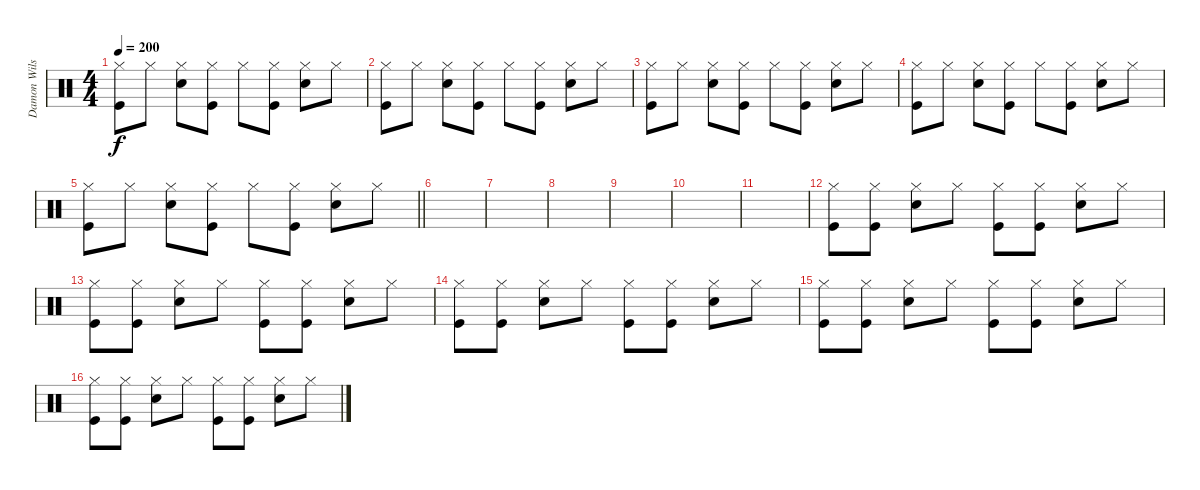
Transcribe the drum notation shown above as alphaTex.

\track ("Damon Wilson" "Damon Wils") {instrument percussion}
\staff {score}
\articulation defaults
\ts (4 4)
\tempo 200
\clef neutral
\ks c
("Hi-Hat (closed)" "Kick (hit)").8{dy f} "Hi-Hat (closed)".8 ("Hi-Hat (closed)" "Snare (hit) 2").8 ("Hi-Hat (closed)" "Kick (hit)").8 "Hi-Hat (closed)".8 ("Hi-Hat (closed)" "Kick (hit)").8 ("Hi-Hat (closed)" "Snare (hit) 2").8 "Hi-Hat (closed)".8 |
("Hi-Hat (closed)" "Kick (hit)").8 "Hi-Hat (closed)".8 ("Hi-Hat (closed)" "Snare (hit) 2").8 ("Hi-Hat (closed)" "Kick (hit)").8 "Hi-Hat (closed)".8 ("Hi-Hat (closed)" "Kick (hit)").8 ("Hi-Hat (closed)" "Snare (hit) 2").8 "Hi-Hat (closed)".8 |
("Hi-Hat (closed)" "Kick (hit)").8 "Hi-Hat (closed)".8 ("Hi-Hat (closed)" "Snare (hit) 2").8 ("Hi-Hat (closed)" "Kick (hit)").8 "Hi-Hat (closed)".8 ("Hi-Hat (closed)" "Kick (hit)").8 ("Hi-Hat (closed)" "Snare (hit) 2").8 "Hi-Hat (closed)".8 |
("Hi-Hat (closed)" "Kick (hit)").8 "Hi-Hat (closed)".8 ("Hi-Hat (closed)" "Snare (hit) 2").8 ("Hi-Hat (closed)" "Kick (hit)").8 "Hi-Hat (closed)".8 ("Hi-Hat (closed)" "Kick (hit)").8 ("Hi-Hat (closed)" "Snare (hit) 2").8 "Hi-Hat (closed)".8 |
\barLineRight lightlight
("Hi-Hat (closed)" "Kick (hit)").8 "Hi-Hat (closed)".8 ("Hi-Hat (closed)" "Snare (hit) 2").8 ("Hi-Hat (closed)" "Kick (hit)").8 "Hi-Hat (closed)".8 ("Hi-Hat (closed)" "Kick (hit)").8 ("Hi-Hat (closed)" "Snare (hit) 2").8 "Hi-Hat (closed)".8 |
|
|
|
|
|
|
("Hi-Hat (closed)" "Kick (hit)").8 ("Hi-Hat (closed)" "Kick (hit)").8 ("Hi-Hat (closed)" "Snare (hit) 2").8 "Hi-Hat (closed)".8 ("Hi-Hat (closed)" "Kick (hit)").8 ("Hi-Hat (closed)" "Kick (hit)").8 ("Hi-Hat (closed)" "Snare (hit) 2").8 "Hi-Hat (closed)".8 |
("Hi-Hat (closed)" "Kick (hit)").8 ("Hi-Hat (closed)" "Kick (hit)").8 ("Hi-Hat (closed)" "Snare (hit) 2").8 "Hi-Hat (closed)".8 ("Hi-Hat (closed)" "Kick (hit)").8 ("Hi-Hat (closed)" "Kick (hit)").8 ("Hi-Hat (closed)" "Snare (hit) 2").8 "Hi-Hat (closed)".8 |
("Hi-Hat (closed)" "Kick (hit)").8 ("Hi-Hat (closed)" "Kick (hit)").8 ("Hi-Hat (closed)" "Snare (hit) 2").8 "Hi-Hat (closed)".8 ("Hi-Hat (closed)" "Kick (hit)").8 ("Hi-Hat (closed)" "Kick (hit)").8 ("Hi-Hat (closed)" "Snare (hit) 2").8 "Hi-Hat (closed)".8 |
("Hi-Hat (closed)" "Kick (hit)").8 ("Hi-Hat (closed)" "Kick (hit)").8 ("Hi-Hat (closed)" "Snare (hit) 2").8 "Hi-Hat (closed)".8 ("Hi-Hat (closed)" "Kick (hit)").8 ("Hi-Hat (closed)" "Kick (hit)").8 ("Hi-Hat (closed)" "Snare (hit) 2").8 "Hi-Hat (closed)".8 |
("Hi-Hat (closed)" "Kick (hit)").8 ("Hi-Hat (closed)" "Kick (hit)").8 ("Hi-Hat (closed)" "Snare (hit) 2").8 "Hi-Hat (closed)".8 ("Hi-Hat (closed)" "Kick (hit)").8 ("Hi-Hat (closed)" "Kick (hit)").8 ("Hi-Hat (closed)" "Snare (hit) 2").8 "Hi-Hat (closed)".8
